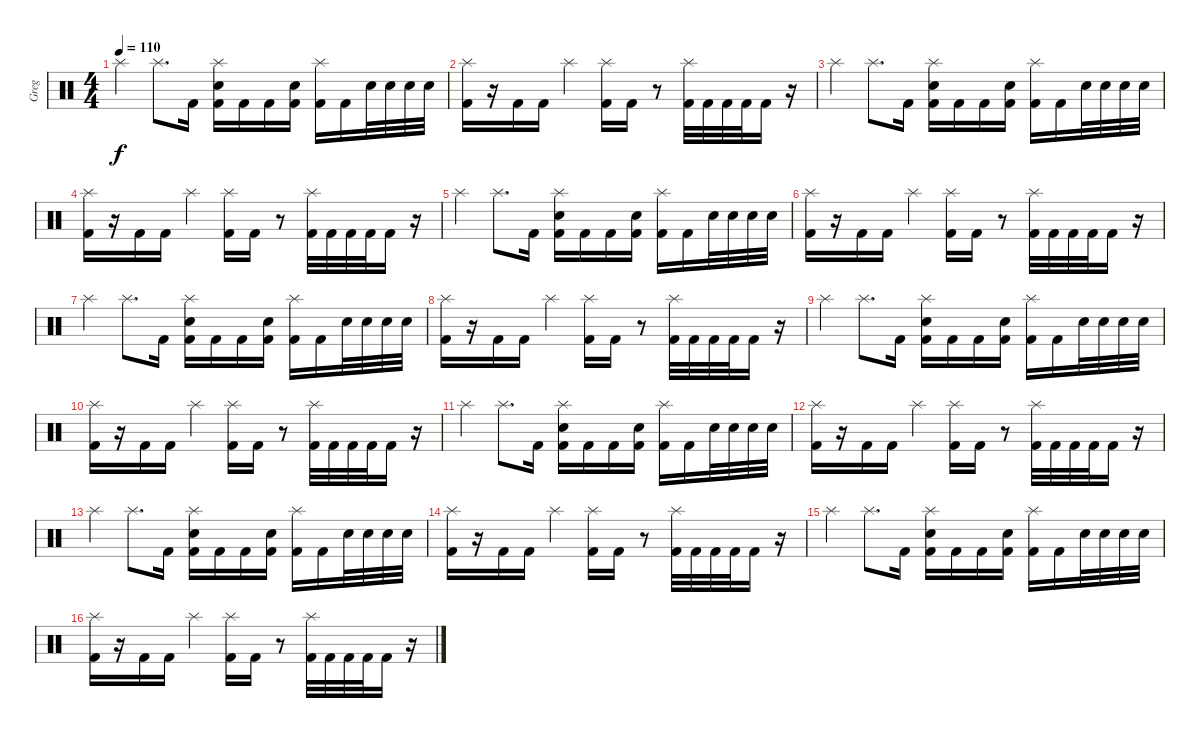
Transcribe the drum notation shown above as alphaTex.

\track ("Greg" "Greg") {instrument percussion}
\staff {score}
\articulation defaults
\ts (4 4)
\tempo 110
\clef neutral
\ks c "Splash (hit)".4{dy f} "Splash (hit)".8{d} "Kick (hit) 2".16
("Splash (hit)" "Snare (hit) 2" "Kick (hit) 2").16 "Kick (hit) 2".16 "Kick (hit) 2".16 ("Snare (hit) 2" "Kick (hit) 2").16 ("Splash (hit)" "Kick (hit) 2").16 "Kick (hit) 2".16 "Snare (hit) 2".32 "Snare (hit) 2".32 "Snare (hit) 2".32 "Snare (hit) 2".32 |
("Splash (hit)" "Kick (hit) 2").16 r.16 "Kick (hit) 2".16 "Kick (hit) 2".16 "Splash (hit)".4 ("Splash (hit)" "Kick (hit) 2").16 "Kick (hit) 2".16 r.8 ("Splash (hit)" "Kick (hit) 2").32 "Kick (hit) 2".32 "Kick (hit) 2".32 "Kick (hit) 2".32 "Kick (hit) 2".16 r.16 |
"Splash (hit)".4 "Splash (hit)".8{d} "Kick (hit) 2".16 ("Splash (hit)" "Snare (hit) 2" "Kick (hit) 2").16 "Kick (hit) 2".16 "Kick (hit) 2".16 ("Snare (hit) 2" "Kick (hit) 2").16 ("Splash (hit)" "Kick (hit) 2").16 "Kick (hit) 2".16 "Snare (hit) 2".32 "Snare (hit) 2".32 "Snare (hit) 2".32 "Snare (hit) 2".32 |
("Splash (hit)" "Kick (hit) 2").16 r.16 "Kick (hit) 2".16 "Kick (hit) 2".16 "Splash (hit)".4 ("Splash (hit)" "Kick (hit) 2").16 "Kick (hit) 2".16 r.8 ("Splash (hit)" "Kick (hit) 2").32 "Kick (hit) 2".32 "Kick (hit) 2".32 "Kick (hit) 2".32 "Kick (hit) 2".16 r.16 |
"Splash (hit)".4 "Splash (hit)".8{d} "Kick (hit) 2".16 ("Splash (hit)" "Snare (hit) 2" "Kick (hit) 2").16 "Kick (hit) 2".16 "Kick (hit) 2".16 ("Snare (hit) 2" "Kick (hit) 2").16 ("Splash (hit)" "Kick (hit) 2").16 "Kick (hit) 2".16 "Snare (hit) 2".32 "Snare (hit) 2".32 "Snare (hit) 2".32 "Snare (hit) 2".32 |
("Splash (hit)" "Kick (hit) 2").16 r.16 "Kick (hit) 2".16 "Kick (hit) 2".16 "Splash (hit)".4 ("Splash (hit)" "Kick (hit) 2").16 "Kick (hit) 2".16 r.8 ("Splash (hit)" "Kick (hit) 2").32 "Kick (hit) 2".32 "Kick (hit) 2".32 "Kick (hit) 2".32 "Kick (hit) 2".16 r.16 |
"Splash (hit)".4 "Splash (hit)".8{d} "Kick (hit) 2".16 ("Splash (hit)" "Snare (hit) 2" "Kick (hit) 2").16 "Kick (hit) 2".16 "Kick (hit) 2".16 ("Snare (hit) 2" "Kick (hit) 2").16 ("Splash (hit)" "Kick (hit) 2").16 "Kick (hit) 2".16 "Snare (hit) 2".32 "Snare (hit) 2".32 "Snare (hit) 2".32 "Snare (hit) 2".32 |
("Splash (hit)" "Kick (hit) 2").16 r.16 "Kick (hit) 2".16 "Kick (hit) 2".16 "Splash (hit)".4 ("Splash (hit)" "Kick (hit) 2").16 "Kick (hit) 2".16 r.8 ("Splash (hit)" "Kick (hit) 2").32 "Kick (hit) 2".32 "Kick (hit) 2".32 "Kick (hit) 2".32 "Kick (hit) 2".16 r.16 |
"Splash (hit)".4 "Splash (hit)".8{d} "Kick (hit) 2".16 ("Splash (hit)" "Snare (hit) 2" "Kick (hit) 2").16 "Kick (hit) 2".16 "Kick (hit) 2".16 ("Snare (hit) 2" "Kick (hit) 2").16 ("Splash (hit)" "Kick (hit) 2").16 "Kick (hit) 2".16 "Snare (hit) 2".32 "Snare (hit) 2".32 "Snare (hit) 2".32 "Snare (hit) 2".32 |
("Splash (hit)" "Kick (hit) 2").16 r.16 "Kick (hit) 2".16 "Kick (hit) 2".16 "Splash (hit)".4 ("Splash (hit)" "Kick (hit) 2").16 "Kick (hit) 2".16 r.8 ("Splash (hit)" "Kick (hit) 2").32 "Kick (hit) 2".32 "Kick (hit) 2".32 "Kick (hit) 2".32 "Kick (hit) 2".16 r.16 |
"Splash (hit)".4 "Splash (hit)".8{d} "Kick (hit) 2".16 ("Splash (hit)" "Snare (hit) 2" "Kick (hit) 2").16 "Kick (hit) 2".16 "Kick (hit) 2".16 ("Snare (hit) 2" "Kick (hit) 2").16 ("Splash (hit)" "Kick (hit) 2").16 "Kick (hit) 2".16 "Snare (hit) 2".32 "Snare (hit) 2".32 "Snare (hit) 2".32 "Snare (hit) 2".32 |
("Splash (hit)" "Kick (hit) 2").16 r.16 "Kick (hit) 2".16 "Kick (hit) 2".16 "Splash (hit)".4 ("Splash (hit)" "Kick (hit) 2").16 "Kick (hit) 2".16 r.8 ("Splash (hit)" "Kick (hit) 2").32 "Kick (hit) 2".32 "Kick (hit) 2".32 "Kick (hit) 2".32 "Kick (hit) 2".16 r.16 |
"Splash (hit)".4 "Splash (hit)".8{d} "Kick (hit) 2".16 ("Splash (hit)" "Snare (hit) 2" "Kick (hit) 2").16 "Kick (hit) 2".16 "Kick (hit) 2".16 ("Snare (hit) 2" "Kick (hit) 2").16 ("Splash (hit)" "Kick (hit) 2").16 "Kick (hit) 2".16 "Snare (hit) 2".32 "Snare (hit) 2".32 "Snare (hit) 2".32 "Snare (hit) 2".32 |
("Splash (hit)" "Kick (hit) 2").16 r.16 "Kick (hit) 2".16 "Kick (hit) 2".16 "Splash (hit)".4 ("Splash (hit)" "Kick (hit) 2").16 "Kick (hit) 2".16 r.8 ("Splash (hit)" "Kick (hit) 2").32 "Kick (hit) 2".32 "Kick (hit) 2".32 "Kick (hit) 2".32 "Kick (hit) 2".16 r.16 |
"Splash (hit)".4 "Splash (hit)".8{d} "Kick (hit) 2".16 ("Splash (hit)" "Snare (hit) 2" "Kick (hit) 2").16 "Kick (hit) 2".16 "Kick (hit) 2".16 ("Snare (hit) 2" "Kick (hit) 2").16 ("Splash (hit)" "Kick (hit) 2").16 "Kick (hit) 2".16 "Snare (hit) 2".32 "Snare (hit) 2".32 "Snare (hit) 2".32 "Snare (hit) 2".32 |
("Splash (hit)" "Kick (hit) 2").16 r.16 "Kick (hit) 2".16 "Kick (hit) 2".16 "Splash (hit)".4 ("Splash (hit)" "Kick (hit) 2").16 "Kick (hit) 2".16 r.8 ("Splash (hit)" "Kick (hit) 2").32 "Kick (hit) 2".32 "Kick (hit) 2".32 "Kick (hit) 2".32 "Kick (hit) 2".16 r.16
